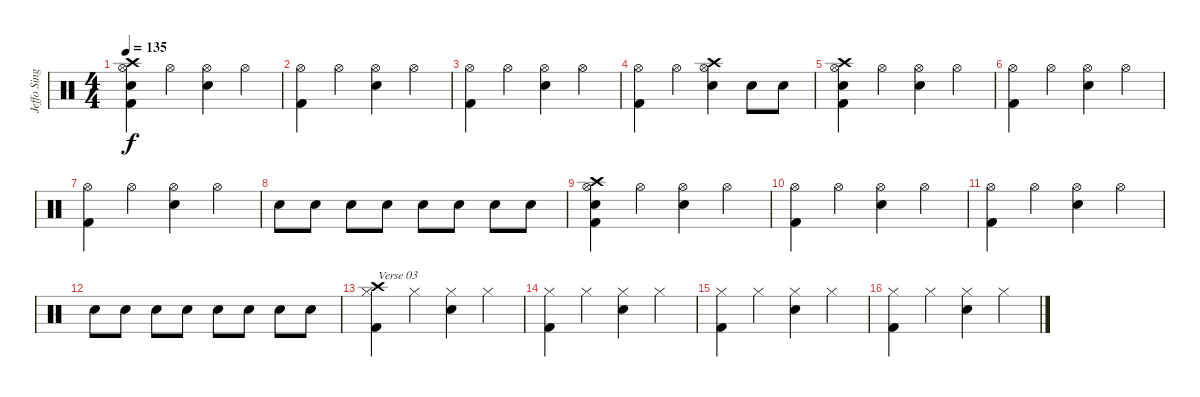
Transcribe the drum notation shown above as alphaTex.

\track ("Jeffo Singer" "Jeffo Sing") {instrument percussion}
\staff {score}
\articulation defaults
\ts (4 4)
\tempo 135
\clef neutral
\ks c
("Hi-Hat (open)" "Kick (hit) 2" "Snare (hit) 2" "Crash high (hit)").4{dy f} "Hi-Hat (open)".4 ("Hi-Hat (open)" "Snare (hit) 2").4 "Hi-Hat (open)".4 |
("Hi-Hat (open)" "Kick (hit) 2").4 "Hi-Hat (open)".4 ("Hi-Hat (open)" "Snare (hit) 2").4 "Hi-Hat (open)".4 |
("Hi-Hat (open)" "Kick (hit) 2").4 "Hi-Hat (open)".4 ("Hi-Hat (open)" "Snare (hit) 2").4 "Hi-Hat (open)".4 |
("Hi-Hat (open)" "Kick (hit) 2").4 "Hi-Hat (open)".4 ("Hi-Hat (open)" "Snare (hit) 2" "Crash high (hit)").4 "Snare (hit) 2".8 "Snare (hit) 2".8 |
("Hi-Hat (open)" "Kick (hit) 2" "Snare (hit) 2" "Crash high (hit)").4 "Hi-Hat (open)".4 ("Hi-Hat (open)" "Snare (hit) 2").4 "Hi-Hat (open)".4 |
("Hi-Hat (open)" "Kick (hit) 2").4 "Hi-Hat (open)".4 ("Hi-Hat (open)" "Snare (hit) 2").4 "Hi-Hat (open)".4 |
("Hi-Hat (open)" "Kick (hit) 2").4 "Hi-Hat (open)".4 ("Hi-Hat (open)" "Snare (hit) 2").4 "Hi-Hat (open)".4 |
"Snare (hit) 2".8 "Snare (hit) 2".8 "Snare (hit) 2".8 "Snare (hit) 2".8 "Snare (hit) 2".8 "Snare (hit) 2".8 "Snare (hit) 2".8 "Snare (hit) 2".8 |
("Hi-Hat (open)" "Kick (hit) 2" "Snare (hit) 2" "Crash high (hit)").4 "Hi-Hat (open)".4 ("Hi-Hat (open)" "Snare (hit) 2").4 "Hi-Hat (open)".4 |
("Hi-Hat (open)" "Kick (hit) 2").4 "Hi-Hat (open)".4 ("Hi-Hat (open)" "Snare (hit) 2").4 "Hi-Hat (open)".4 |
("Hi-Hat (open)" "Kick (hit) 2").4 "Hi-Hat (open)".4 ("Hi-Hat (open)" "Snare (hit) 2").4 "Hi-Hat (open)".4 |
"Snare (hit) 2".8 "Snare (hit) 2".8 "Snare (hit) 2".8 "Snare (hit) 2".8 "Snare (hit) 2".8 "Snare (hit) 2".8 "Snare (hit) 2".8 "Snare (hit) 2".8 |
("Hi-Hat (closed)" "Kick (hit) 2" "Crash high (hit)").4{txt "Verse 03"} "Hi-Hat (closed)".4 ("Hi-Hat (closed)" "Snare (hit) 2").4 "Hi-Hat (closed)".4 |
("Hi-Hat (closed)" "Kick (hit) 2").4 "Hi-Hat (closed)".4 ("Hi-Hat (closed)" "Snare (hit) 2").4 "Hi-Hat (closed)".4 |
("Hi-Hat (closed)" "Kick (hit) 2").4 "Hi-Hat (closed)".4 ("Hi-Hat (closed)" "Snare (hit) 2").4 "Hi-Hat (closed)".4 |
("Hi-Hat (closed)" "Kick (hit) 2").4 "Hi-Hat (closed)".4 ("Hi-Hat (closed)" "Snare (hit) 2").4 "Hi-Hat (closed)".4
